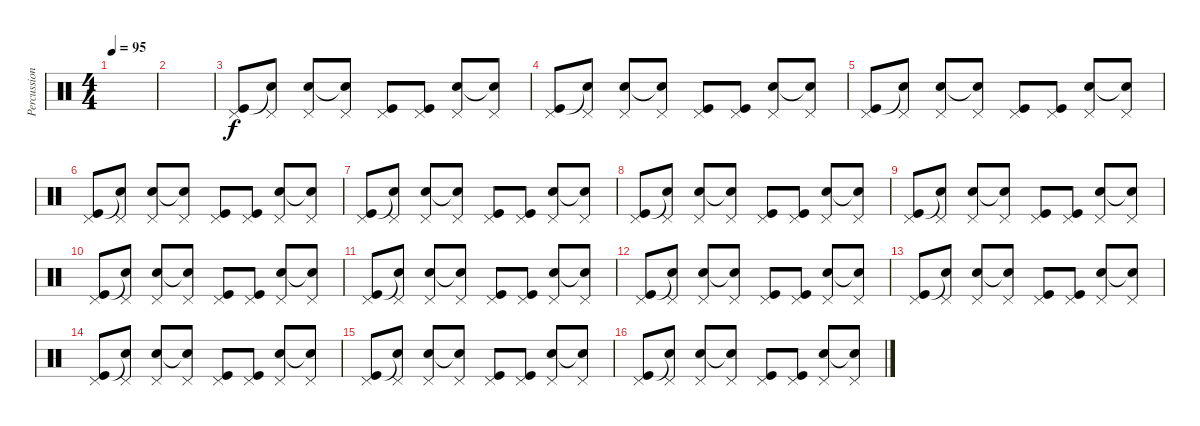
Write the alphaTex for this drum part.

\track ("Percussion" "Percussion") {instrument percussion}
\staff {score}
\articulation defaults
\ts (4 4)
\tempo 95
\clef neutral
\ks c
|
|
("Pedal Hi-Hat (hit)" "Kick (hit)").8 ("Pedal Hi-Hat (hit)" "Snare (hit)"{t}).8 ("Pedal Hi-Hat (hit)" "Snare (hit) 2").8 ("Pedal Hi-Hat (hit)" "Snare (hit)"{t}).8 ("Pedal Hi-Hat (hit)" "Kick (hit)").8 ("Pedal Hi-Hat (hit)" "Kick (hit)").8 ("Pedal Hi-Hat (hit)" "Snare (hit) 2").8 ("Pedal Hi-Hat (hit)" "Snare (hit)"{t}).8 |
("Pedal Hi-Hat (hit)" "Kick (hit)").8 ("Pedal Hi-Hat (hit)" "Snare (hit)"{t}).8 ("Pedal Hi-Hat (hit)" "Snare (hit) 2").8 ("Pedal Hi-Hat (hit)" "Snare (hit)"{t}).8 ("Pedal Hi-Hat (hit)" "Kick (hit)").8 ("Pedal Hi-Hat (hit)" "Kick (hit)").8 ("Pedal Hi-Hat (hit)" "Snare (hit) 2").8 ("Pedal Hi-Hat (hit)" "Snare (hit)"{t}).8 |
("Pedal Hi-Hat (hit)" "Kick (hit)").8 ("Pedal Hi-Hat (hit)" "Snare (hit)"{t}).8 ("Pedal Hi-Hat (hit)" "Snare (hit) 2").8 ("Pedal Hi-Hat (hit)" "Snare (hit)"{t}).8 ("Pedal Hi-Hat (hit)" "Kick (hit)").8 ("Pedal Hi-Hat (hit)" "Kick (hit)").8 ("Pedal Hi-Hat (hit)" "Snare (hit) 2").8 ("Pedal Hi-Hat (hit)" "Snare (hit)"{t}).8 |
("Pedal Hi-Hat (hit)" "Kick (hit)").8 ("Pedal Hi-Hat (hit)" "Snare (hit)"{t}).8 ("Pedal Hi-Hat (hit)" "Snare (hit) 2").8 ("Pedal Hi-Hat (hit)" "Snare (hit)"{t}).8 ("Pedal Hi-Hat (hit)" "Kick (hit)").8 ("Pedal Hi-Hat (hit)" "Kick (hit)").8 ("Pedal Hi-Hat (hit)" "Snare (hit) 2").8 ("Pedal Hi-Hat (hit)" "Snare (hit)"{t}).8 |
("Pedal Hi-Hat (hit)" "Kick (hit)").8 ("Pedal Hi-Hat (hit)" "Snare (hit)"{t}).8 ("Pedal Hi-Hat (hit)" "Snare (hit) 2").8 ("Pedal Hi-Hat (hit)" "Snare (hit)"{t}).8 ("Pedal Hi-Hat (hit)" "Kick (hit)").8 ("Pedal Hi-Hat (hit)" "Kick (hit)").8 ("Pedal Hi-Hat (hit)" "Snare (hit) 2").8 ("Pedal Hi-Hat (hit)" "Snare (hit)"{t}).8 |
("Pedal Hi-Hat (hit)" "Kick (hit)").8 ("Pedal Hi-Hat (hit)" "Snare (hit)"{t}).8 ("Pedal Hi-Hat (hit)" "Snare (hit) 2").8 ("Pedal Hi-Hat (hit)" "Snare (hit)"{t}).8 ("Pedal Hi-Hat (hit)" "Kick (hit)").8 ("Pedal Hi-Hat (hit)" "Kick (hit)").8 ("Pedal Hi-Hat (hit)" "Snare (hit) 2").8 ("Pedal Hi-Hat (hit)" "Snare (hit)"{t}).8 |
("Pedal Hi-Hat (hit)" "Kick (hit)").8 ("Pedal Hi-Hat (hit)" "Snare (hit)"{t}).8 ("Pedal Hi-Hat (hit)" "Snare (hit) 2").8 ("Pedal Hi-Hat (hit)" "Snare (hit)"{t}).8 ("Pedal Hi-Hat (hit)" "Kick (hit)").8 ("Pedal Hi-Hat (hit)" "Kick (hit)").8 ("Pedal Hi-Hat (hit)" "Snare (hit) 2").8 ("Pedal Hi-Hat (hit)" "Snare (hit)"{t}).8 |
("Pedal Hi-Hat (hit)" "Kick (hit)").8 ("Pedal Hi-Hat (hit)" "Snare (hit)"{t}).8 ("Pedal Hi-Hat (hit)" "Snare (hit) 2").8 ("Pedal Hi-Hat (hit)" "Snare (hit)"{t}).8 ("Pedal Hi-Hat (hit)" "Kick (hit)").8 ("Pedal Hi-Hat (hit)" "Kick (hit)").8 ("Pedal Hi-Hat (hit)" "Snare (hit) 2").8 ("Pedal Hi-Hat (hit)" "Snare (hit)"{t}).8 |
("Pedal Hi-Hat (hit)" "Kick (hit)").8 ("Pedal Hi-Hat (hit)" "Snare (hit)"{t}).8 ("Pedal Hi-Hat (hit)" "Snare (hit) 2").8 ("Pedal Hi-Hat (hit)" "Snare (hit)"{t}).8 ("Pedal Hi-Hat (hit)" "Kick (hit)").8 ("Pedal Hi-Hat (hit)" "Kick (hit)").8 ("Pedal Hi-Hat (hit)" "Snare (hit) 2").8 ("Pedal Hi-Hat (hit)" "Snare (hit)"{t}).8 |
("Pedal Hi-Hat (hit)" "Kick (hit)").8 ("Pedal Hi-Hat (hit)" "Snare (hit)"{t}).8 ("Pedal Hi-Hat (hit)" "Snare (hit) 2").8 ("Pedal Hi-Hat (hit)" "Snare (hit)"{t}).8 ("Pedal Hi-Hat (hit)" "Kick (hit)").8 ("Pedal Hi-Hat (hit)" "Kick (hit)").8 ("Pedal Hi-Hat (hit)" "Snare (hit) 2").8 ("Pedal Hi-Hat (hit)" "Snare (hit)"{t}).8 |
("Pedal Hi-Hat (hit)" "Kick (hit)").8 ("Pedal Hi-Hat (hit)" "Snare (hit)"{t}).8 ("Pedal Hi-Hat (hit)" "Snare (hit) 2").8 ("Pedal Hi-Hat (hit)" "Snare (hit)"{t}).8 ("Pedal Hi-Hat (hit)" "Kick (hit)").8 ("Pedal Hi-Hat (hit)" "Kick (hit)").8 ("Pedal Hi-Hat (hit)" "Snare (hit) 2").8 ("Pedal Hi-Hat (hit)" "Snare (hit)"{t}).8 |
("Pedal Hi-Hat (hit)" "Kick (hit)").8 ("Pedal Hi-Hat (hit)" "Snare (hit)"{t}).8 ("Pedal Hi-Hat (hit)" "Snare (hit) 2").8 ("Pedal Hi-Hat (hit)" "Snare (hit)"{t}).8 ("Pedal Hi-Hat (hit)" "Kick (hit)").8 ("Pedal Hi-Hat (hit)" "Kick (hit)").8 ("Pedal Hi-Hat (hit)" "Snare (hit) 2").8 ("Pedal Hi-Hat (hit)" "Snare (hit)"{t}).8 |
("Pedal Hi-Hat (hit)" "Kick (hit)").8 ("Pedal Hi-Hat (hit)" "Snare (hit)"{t}).8 ("Pedal Hi-Hat (hit)" "Snare (hit) 2").8 ("Pedal Hi-Hat (hit)" "Snare (hit)"{t}).8 ("Pedal Hi-Hat (hit)" "Kick (hit)").8 ("Pedal Hi-Hat (hit)" "Kick (hit)").8 ("Pedal Hi-Hat (hit)" "Snare (hit) 2").8 ("Pedal Hi-Hat (hit)" "Snare (hit)"{t}).8 |
("Pedal Hi-Hat (hit)" "Kick (hit)").8 ("Pedal Hi-Hat (hit)" "Snare (hit)"{t}).8 ("Pedal Hi-Hat (hit)" "Snare (hit) 2").8 ("Pedal Hi-Hat (hit)" "Snare (hit)"{t}).8 ("Pedal Hi-Hat (hit)" "Kick (hit)").8 ("Pedal Hi-Hat (hit)" "Kick (hit)").8 ("Pedal Hi-Hat (hit)" "Snare (hit) 2").8 ("Pedal Hi-Hat (hit)" "Snare (hit)"{t}).8
